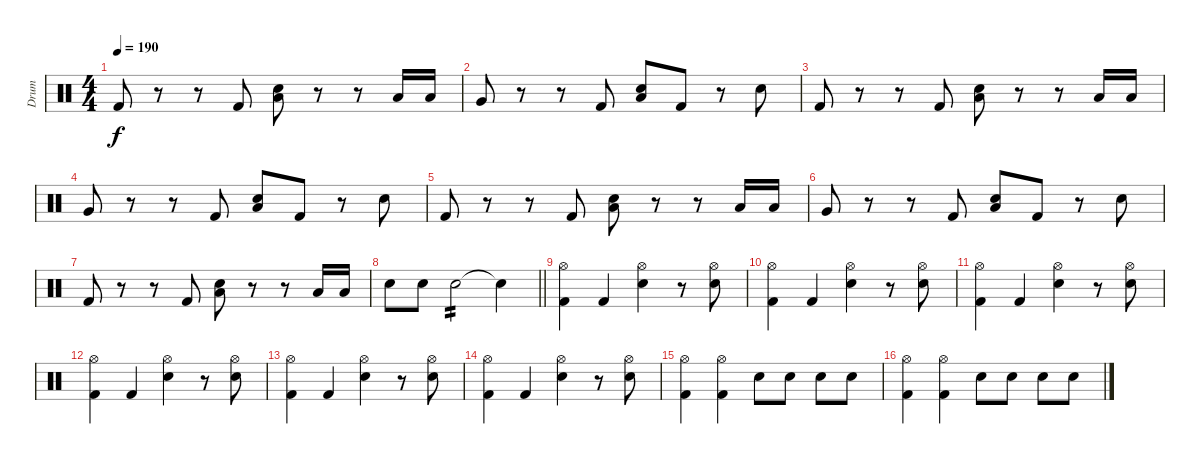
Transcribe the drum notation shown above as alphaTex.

\track ("Drum" "Drum") {instrument percussion}
\staff {score}
\articulation defaults
\ts (4 4)
\section ("" "")
\tempo 190
\clef neutral
\ks c "Kick (hit) 2".8{dy f}
r.8 r.8 "Kick (hit) 2".8 ("Snare (hit) 2" "Low Floor Tom (hit)").8 r.8 r.8 "Low Tom (hit)".16 "Low Tom (hit)".16 |
"Very Low Tom (hit)".8 r.8 r.8 "Kick (hit) 2".8 ("Snare (hit) 2" "Low Floor Tom (hit)").8 "Kick (hit) 2".8 r.8 "Snare (hit) 2".8 |
"Kick (hit) 2".8 r.8 r.8 "Kick (hit) 2".8 ("Snare (hit) 2" "Low Floor Tom (hit)").8 r.8 r.8 "Low Tom (hit)".16 "Low Tom (hit)".16 |
"Very Low Tom (hit)".8 r.8 r.8 "Kick (hit) 2".8 ("Snare (hit) 2" "Low Floor Tom (hit)").8 "Kick (hit) 2".8 r.8 "Snare (hit) 2".8 |
"Kick (hit) 2".8 r.8 r.8 "Kick (hit) 2".8 ("Snare (hit) 2" "Low Floor Tom (hit)").8 r.8 r.8 "Low Tom (hit)".16 "Low Tom (hit)".16 |
"Very Low Tom (hit)".8 r.8 r.8 "Kick (hit) 2".8 ("Snare (hit) 2" "Low Floor Tom (hit)").8 "Kick (hit) 2".8 r.8 "Snare (hit) 2".8 |
"Kick (hit) 2".8 r.8 r.8 "Kick (hit) 2".8 ("Snare (hit) 2" "Low Floor Tom (hit)").8 r.8 r.8 "Low Tom (hit)".16 "Low Tom (hit)".16 |
\barLineRight lightlight "Snare (hit) 2".8 "Snare (hit) 2".8 "Snare (hit) 2".2{tp 2} "Snare (hit)"{t}.4
|
\section ("" "")
("Kick (hit) 2" "Hi-Hat (open)").4 "Kick (hit) 2".4 ("Snare (hit) 2" "Hi-Hat (open)").4 r.8 ("Snare (hit) 2" "Hi-Hat (open)").8 |
("Kick (hit) 2" "Hi-Hat (open)").4 "Kick (hit) 2".4 ("Snare (hit) 2" "Hi-Hat (open)").4 r.8 ("Snare (hit) 2" "Hi-Hat (open)").8 |
("Kick (hit) 2" "Hi-Hat (open)").4 "Kick (hit) 2".4 ("Snare (hit) 2" "Hi-Hat (open)").4 r.8 ("Snare (hit) 2" "Hi-Hat (open)").8 |
("Kick (hit) 2" "Hi-Hat (open)").4 "Kick (hit) 2".4 ("Snare (hit) 2" "Hi-Hat (open)").4 r.8 ("Snare (hit) 2" "Hi-Hat (open)").8 |
("Kick (hit) 2" "Hi-Hat (open)").4 "Kick (hit) 2".4 ("Snare (hit) 2" "Hi-Hat (open)").4 r.8 ("Snare (hit) 2" "Hi-Hat (open)").8 |
("Kick (hit) 2" "Hi-Hat (open)").4 "Kick (hit) 2".4 ("Snare (hit) 2" "Hi-Hat (open)").4 r.8 ("Snare (hit) 2" "Hi-Hat (open)").8 |
("Kick (hit) 2" "Hi-Hat (open)").4 ("Kick (hit) 2" "Hi-Hat (open)").4 "Snare (hit) 2".8 "Snare (hit) 2".8 "Snare (hit) 2".8 "Snare (hit) 2".8 |
("Kick (hit) 2" "Hi-Hat (open)").4 ("Kick (hit) 2" "Hi-Hat (open)").4 "Snare (hit) 2".8 "Snare (hit) 2".8 "Snare (hit) 2".8 "Snare (hit) 2".8
